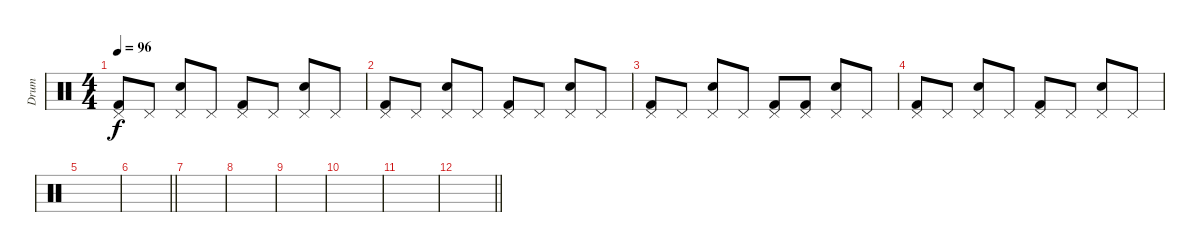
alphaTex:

\track ("Drum" "Drum") {instrument percussion}
\staff {score}
\articulation defaults
\ts (4 4)
\tempo 96
\clef neutral
\ks c
("Pedal Hi-Hat (hit)" "Kick (hit) 2").8{dy f} "Pedal Hi-Hat (hit)".8 ("Pedal Hi-Hat (hit)" "Snare (hit) 2").8 "Pedal Hi-Hat (hit)".8 ("Pedal Hi-Hat (hit)" "Kick (hit) 2").8 "Pedal Hi-Hat (hit)".8 ("Pedal Hi-Hat (hit)" "Snare (hit) 2").8 "Pedal Hi-Hat (hit)".8 |
("Pedal Hi-Hat (hit)" "Kick (hit) 2").8 "Pedal Hi-Hat (hit)".8 ("Pedal Hi-Hat (hit)" "Snare (hit) 2").8 "Pedal Hi-Hat (hit)".8 ("Pedal Hi-Hat (hit)" "Kick (hit) 2").8 "Pedal Hi-Hat (hit)".8 ("Pedal Hi-Hat (hit)" "Snare (hit) 2").8 "Pedal Hi-Hat (hit)".8 |
("Pedal Hi-Hat (hit)" "Kick (hit) 2").8 "Pedal Hi-Hat (hit)".8 ("Pedal Hi-Hat (hit)" "Snare (hit) 2").8 "Pedal Hi-Hat (hit)".8 ("Pedal Hi-Hat (hit)" "Kick (hit) 2").8 ("Pedal Hi-Hat (hit)" "Kick (hit) 2").8 ("Pedal Hi-Hat (hit)" "Snare (hit) 2").8 "Pedal Hi-Hat (hit)".8 |
("Pedal Hi-Hat (hit)" "Kick (hit) 2").8 "Pedal Hi-Hat (hit)".8 ("Pedal Hi-Hat (hit)" "Snare (hit) 2").8 "Pedal Hi-Hat (hit)".8 ("Pedal Hi-Hat (hit)" "Kick (hit) 2").8 "Pedal Hi-Hat (hit)".8 ("Pedal Hi-Hat (hit)" "Snare (hit) 2").8 "Pedal Hi-Hat (hit)".8 |
|
\barLineRight lightlight
|
|
|
|
|
|
\barLineRight lightlight
